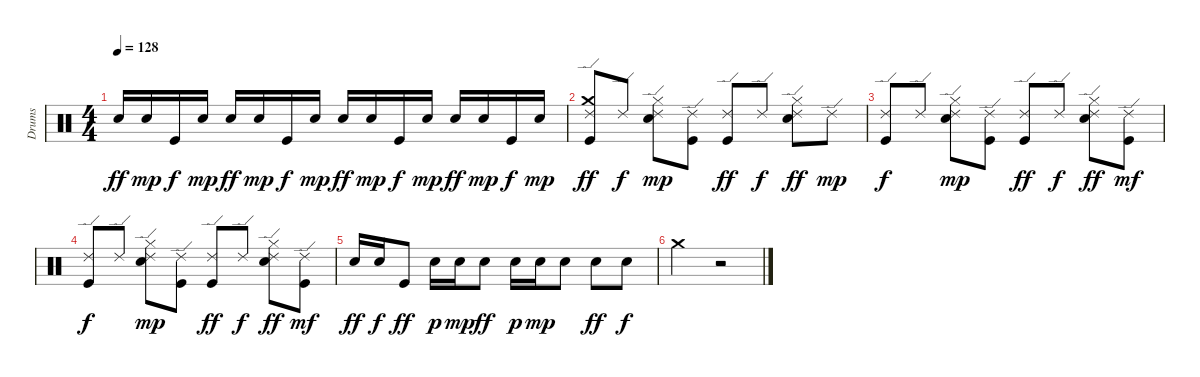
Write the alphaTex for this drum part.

\track ("Drums" "Drums") {instrument percussion}
\staff {score}
\articulation defaults
\ts (4 4)
\tempo 128
\clef neutral
\ks c "Electric Snare (hit)".16{dy ff} "Electric Snare (hit)".16{dy mp} "Kick (hit)".16{dy f} "Electric Snare (hit)".16{dy mp} "Electric Snare (hit)".16{dy ff} "Electric Snare (hit)".16{dy mp} "Kick (hit)".16{dy f} "Electric Snare (hit)".16{dy mp} "Electric Snare (hit)".16{dy ff} "Electric Snare (hit)".16{dy mp} "Kick (hit)".16{dy f} "Electric Snare (hit)".16{dy mp} "Electric Snare (hit)".16{dy ff} "Electric Snare (hit)".16{dy mp} "Kick (hit)".16{dy f} "Electric Snare (hit)".16{dy mp}
|
("Crash medium (hit)" "Ride (edge) 2" "Kick (hit)").8{dy ff} "Ride (edge) 2".8{dy f} ("Electric Snare (hit)" "Hi-Hat (closed)" "Ride (edge) 2").8{dy mp} ("Ride (edge) 2" "Kick (hit)").8 ("Ride (edge) 2" "Kick (hit)").8{dy ff} "Ride (edge) 2".8{dy f} ("Electric Snare (hit)" "Hi-Hat (closed)" "Ride (edge) 2").8{dy ff} "Ride (edge) 2".8{dy mp} |
("Ride (edge) 2" "Kick (hit)").8{dy f} "Ride (edge) 2".8 ("Electric Snare (hit)" "Hi-Hat (closed)" "Ride (edge) 2").8{dy mp} ("Ride (edge) 2" "Kick (hit)").8 ("Ride (edge) 2" "Kick (hit)").8{dy ff} "Ride (edge) 2".8{dy f} ("Electric Snare (hit)" "Hi-Hat (closed)" "Ride (edge) 2").8{dy ff} ("Ride (edge) 2" "Kick (hit)").8{dy mf} |
("Ride (edge) 2" "Kick (hit)").8{dy f} "Ride (edge) 2".8 ("Electric Snare (hit)" "Hi-Hat (closed)" "Ride (edge) 2").8{dy mp} ("Ride (edge) 2" "Kick (hit)").8 ("Ride (edge) 2" "Kick (hit)").8{dy ff} "Ride (edge) 2".8{dy f} ("Electric Snare (hit)" "Hi-Hat (closed)" "Ride (edge) 2").8{dy ff} ("Ride (edge) 2" "Kick (hit)").8{dy mf} |
"Electric Snare (hit)".16{dy ff} "Electric Snare (hit)".16{dy f} "Kick (hit)".8{dy ff} "Electric Snare (hit)".16{dy p} "Electric Snare (hit)".16{dy mp} "Electric Snare (hit)".8{dy ff} "Electric Snare (hit)".16{dy p} "Electric Snare (hit)".16{dy mp} "Electric Snare (hit)".8 "Electric Snare (hit)".8{dy ff} "Electric Snare (hit)".8{dy f} |
"Crash medium (hit)".2 r.2
